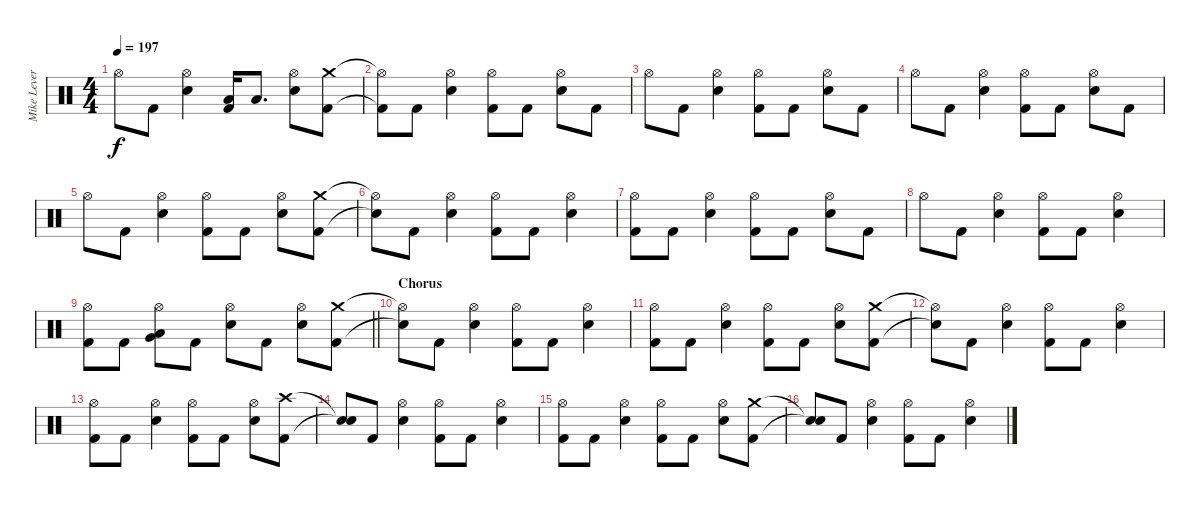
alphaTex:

\track ("Mike Leverence - Drums" "Mike Lever") {instrument percussion}
\staff {score}
\articulation defaults
\ts (4 4)
\tempo 197
\clef neutral
\ks c "Hi-Hat (open)".8{dy f} "Kick (hit) 2".8
("Hi-Hat (open)" "Electric Snare (hit)").4 ("Low Tom (hit)" "Kick (hit) 2").16 "Low Tom (hit)".8{d} ("Hi-Hat (open)" "Electric Snare (hit)").8 ("Crash medium (hit)" "Kick (hit) 2").8 |
("Hi-Hat (open)"{t} "Kick (hit) 2"{t}).8 "Kick (hit) 2".8 ("Hi-Hat (open)" "Electric Snare (hit)").4 ("Hi-Hat (open)" "Kick (hit) 2").8 "Kick (hit) 2".8 ("Hi-Hat (open)" "Electric Snare (hit)").8 "Kick (hit) 2".8 |
"Hi-Hat (open)".8 "Kick (hit) 2".8 ("Hi-Hat (open)" "Electric Snare (hit)").4 ("Hi-Hat (open)" "Kick (hit) 2").8 "Kick (hit) 2".8 ("Hi-Hat (open)" "Electric Snare (hit)").8 "Kick (hit) 2".8 |
"Hi-Hat (open)".8 "Kick (hit) 2".8 ("Hi-Hat (open)" "Electric Snare (hit)").4 ("Hi-Hat (open)" "Kick (hit) 2").8 "Kick (hit) 2".8 ("Hi-Hat (open)" "Electric Snare (hit)").8 "Kick (hit) 2".8 |
"Hi-Hat (open)".8 "Kick (hit) 2".8 ("Hi-Hat (open)" "Electric Snare (hit)").4 ("Hi-Hat (open)" "Kick (hit) 2").8 "Kick (hit) 2".8 ("Hi-Hat (open)" "Electric Snare (hit)").8 ("Crash medium (hit)" "Kick (hit) 2").8 |
("Hi-Hat (open)"{t} "Snare (hit)"{t}).8 "Kick (hit) 2".8 ("Hi-Hat (open)" "Electric Snare (hit)").4 ("Hi-Hat (open)" "Kick (hit) 2").8 "Kick (hit) 2".8 ("Hi-Hat (open)" "Electric Snare (hit)").4 |
("Hi-Hat (open)" "Kick (hit) 2").8 "Kick (hit) 2".8 ("Hi-Hat (open)" "Electric Snare (hit)").4 ("Hi-Hat (open)" "Kick (hit) 2").8 "Kick (hit) 2".8 ("Hi-Hat (open)" "Electric Snare (hit)").8 "Kick (hit) 2".8 |
"Hi-Hat (open)".8 "Kick (hit) 2".8 ("Hi-Hat (open)" "Electric Snare (hit)").4 ("Hi-Hat (open)" "Kick (hit) 2").8 "Kick (hit) 2".8 ("Hi-Hat (open)" "Electric Snare (hit)").4 |
\barLineRight lightlight
("Hi-Hat (open)" "Kick (hit) 2").8 "Kick (hit) 2".8 ("Hi-Hat (open)" "Low Tom (hit)" "Very Low Tom (hit)").8 "Kick (hit) 2".8 ("Hi-Hat (open)" "Electric Snare (hit)").8 "Kick (hit) 2".8 ("Hi-Hat (open)" "Electric Snare (hit)").8 ("Crash medium (hit)" "Kick (hit) 2").8 |
\section ("" "Chorus")
("Hi-Hat (open)"{t} "Snare (hit)"{t}).8 "Kick (hit) 2".8 ("Hi-Hat (open)" "Electric Snare (hit)").4 ("Hi-Hat (open)" "Kick (hit) 2").8 "Kick (hit) 2".8 ("Hi-Hat (open)" "Electric Snare (hit)").4 |
("Hi-Hat (open)" "Kick (hit) 2").8 "Kick (hit) 2".8 ("Hi-Hat (open)" "Electric Snare (hit)").4 ("Hi-Hat (open)" "Kick (hit) 2").8 "Kick (hit) 2".8 ("Hi-Hat (open)" "Electric Snare (hit)").8 ("Crash medium (hit)" "Kick (hit) 2").8 |
("Hi-Hat (open)"{t} "Snare (hit)"{t}).8 "Kick (hit) 2".8 ("Hi-Hat (open)" "Electric Snare (hit)").4 ("Hi-Hat (open)" "Kick (hit) 2").8 "Kick (hit) 2".8 ("Hi-Hat (open)" "Electric Snare (hit)").4 |
("Hi-Hat (open)" "Kick (hit) 2").8 "Kick (hit) 2".8 ("Hi-Hat (open)" "Electric Snare (hit)").4 ("Hi-Hat (open)" "Kick (hit) 2").8 "Kick (hit) 2".8 ("Hi-Hat (open)" "Electric Snare (hit)").8 ("Crash high (hit)" "Kick (hit) 2").8 |
("Snare (hit)"{t} "Snare (hit)"{t}).8 "Kick (hit) 2".8 ("Hi-Hat (open)" "Electric Snare (hit)").4 ("Hi-Hat (open)" "Kick (hit) 2").8 "Kick (hit) 2".8 ("Hi-Hat (open)" "Electric Snare (hit)").4 |
("Hi-Hat (open)" "Kick (hit) 2").8 "Kick (hit) 2".8 ("Hi-Hat (open)" "Electric Snare (hit)").4 ("Hi-Hat (open)" "Kick (hit) 2").8 "Kick (hit) 2".8 ("Hi-Hat (open)" "Electric Snare (hit)").8 ("Crash medium (hit)" "Kick (hit) 2").8 |
("Snare (hit)"{t} "Snare (hit)"{t}).8 "Kick (hit) 2".8 ("Hi-Hat (open)" "Electric Snare (hit)").4 ("Hi-Hat (open)" "Kick (hit) 2").8 "Kick (hit) 2".8 ("Hi-Hat (open)" "Electric Snare (hit)").4
